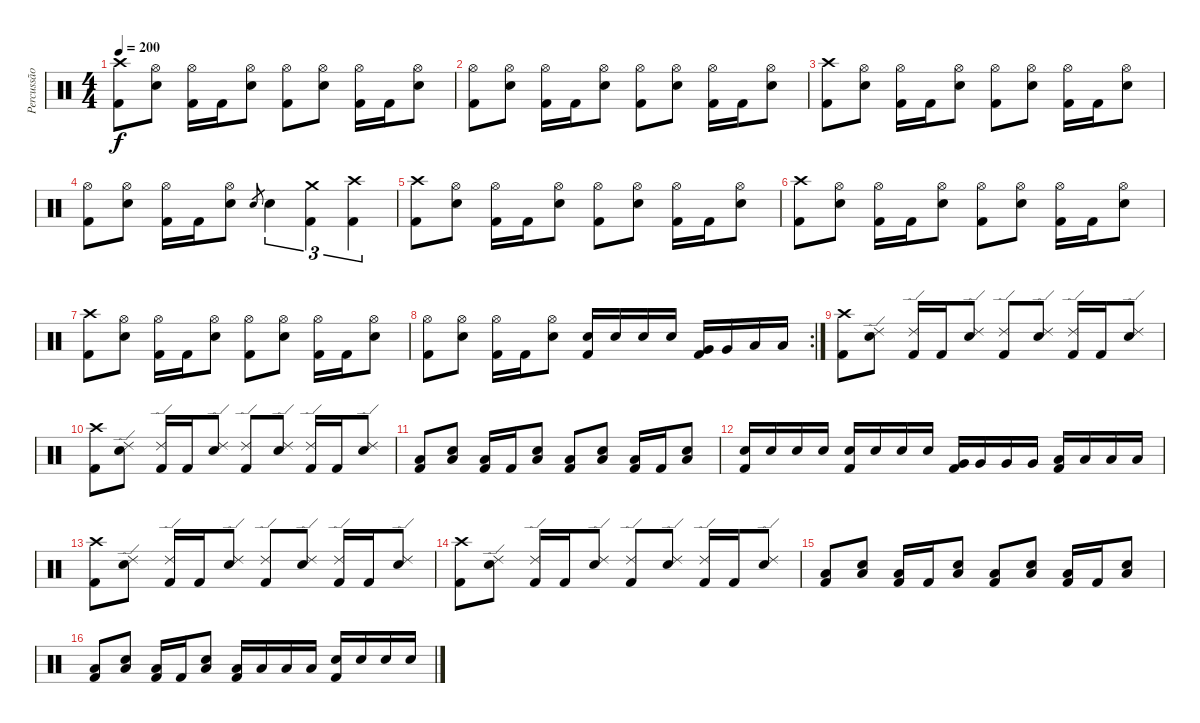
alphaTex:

\track ("Percussão" "Percussão") {instrument percussion}
\staff {score}
\articulation defaults
\ts (4 4)
\tempo 200
\clef neutral
\ks c
("Crash high (hit)" "Kick (hit) 2").8{dy f} ("Hi-Hat (open)" "Snare (hit) 2").8 ("Hi-Hat (open)" "Kick (hit) 2").16 "Kick (hit) 2".16 ("Hi-Hat (open)" "Snare (hit) 2").8 ("Hi-Hat (open)" "Kick (hit) 2").8 ("Hi-Hat (open)" "Snare (hit) 2").8 ("Hi-Hat (open)" "Kick (hit) 2").16 "Kick (hit) 2".16 ("Hi-Hat (open)" "Snare (hit) 2").8 |
("Hi-Hat (open)" "Kick (hit) 2").8 ("Hi-Hat (open)" "Snare (hit) 2").8 ("Hi-Hat (open)" "Kick (hit) 2").16 "Kick (hit) 2".16 ("Hi-Hat (open)" "Snare (hit) 2").8 ("Hi-Hat (open)" "Kick (hit) 2").8 ("Hi-Hat (open)" "Snare (hit) 2").8 ("Hi-Hat (open)" "Kick (hit) 2").16 "Kick (hit) 2".16 ("Hi-Hat (open)" "Snare (hit) 2").8 |
("Crash high (hit)" "Kick (hit) 2").8 ("Hi-Hat (open)" "Snare (hit) 2").8 ("Hi-Hat (open)" "Kick (hit) 2").16 "Kick (hit) 2".16 ("Hi-Hat (open)" "Snare (hit) 2").8 ("Hi-Hat (open)" "Kick (hit) 2").8 ("Hi-Hat (open)" "Snare (hit) 2").8 ("Hi-Hat (open)" "Kick (hit) 2").16 "Kick (hit) 2".16 ("Hi-Hat (open)" "Snare (hit) 2").8 |
("Hi-Hat (open)" "Kick (hit) 2").8 ("Hi-Hat (open)" "Snare (hit) 2").8 ("Hi-Hat (open)" "Kick (hit) 2").16 "Kick (hit) 2".16 ("Hi-Hat (open)" "Snare (hit) 2").8 "Snare (hit) 2".8{gr} "Snare (hit) 2".4{tu (3 2)} ("Crash medium (hit)" "Kick (hit) 2").4{tu (3 2)} ("Crash high (hit)" "Kick (hit) 2").4{tu (3 2)} |
("Crash high (hit)" "Kick (hit) 2").8 ("Hi-Hat (open)" "Snare (hit) 2").8 ("Hi-Hat (open)" "Kick (hit) 2").16 "Kick (hit) 2".16 ("Hi-Hat (open)" "Snare (hit) 2").8 ("Hi-Hat (open)" "Kick (hit) 2").8 ("Hi-Hat (open)" "Snare (hit) 2").8 ("Hi-Hat (open)" "Kick (hit) 2").16 "Kick (hit) 2".16 ("Hi-Hat (open)" "Snare (hit) 2").8 |
("Crash high (hit)" "Kick (hit) 2").8 ("Hi-Hat (open)" "Snare (hit) 2").8 ("Hi-Hat (open)" "Kick (hit) 2").16 "Kick (hit) 2".16 ("Hi-Hat (open)" "Snare (hit) 2").8 ("Hi-Hat (open)" "Kick (hit) 2").8 ("Hi-Hat (open)" "Snare (hit) 2").8 ("Hi-Hat (open)" "Kick (hit) 2").16 "Kick (hit) 2".16 ("Hi-Hat (open)" "Snare (hit) 2").8 |
("Crash high (hit)" "Kick (hit) 2").8 ("Hi-Hat (open)" "Snare (hit) 2").8 ("Hi-Hat (open)" "Kick (hit) 2").16 "Kick (hit) 2".16 ("Hi-Hat (open)" "Snare (hit) 2").8 ("Hi-Hat (open)" "Kick (hit) 2").8 ("Hi-Hat (open)" "Snare (hit) 2").8 ("Hi-Hat (open)" "Kick (hit) 2").16 "Kick (hit) 2".16 ("Hi-Hat (open)" "Snare (hit) 2").8 |
\rc 2
("Hi-Hat (open)" "Kick (hit) 2").8 ("Hi-Hat (open)" "Snare (hit) 2").8 ("Hi-Hat (open)" "Kick (hit) 2").16 "Kick (hit) 2".16 ("Hi-Hat (open)" "Snare (hit) 2").8 ("Snare (hit) 2" "Kick (hit) 2").16 "Snare (hit) 2".16 "Snare (hit) 2".16 "Snare (hit) 2".16 ("Very Low Tom (hit)" "Kick (hit) 2").16 "Very Low Tom (hit)".16 "Low Floor Tom (hit)".16 "Low Floor Tom (hit)".16 |
("Crash high (hit)" "Kick (hit) 2").8 ("Ride (edge) 2" "Snare (hit) 2").8 ("Ride (edge) 2" "Kick (hit) 2").16 "Kick (hit) 2".16 ("Ride (edge) 2" "Snare (hit) 2").8 ("Ride (edge) 2" "Kick (hit) 2").8 ("Ride (edge) 2" "Snare (hit) 2").8 ("Ride (edge) 2" "Kick (hit) 2").16 "Kick (hit) 2".16 ("Ride (edge) 2" "Snare (hit) 2").8 |
("Crash high (hit)" "Kick (hit) 2").8 ("Ride (edge) 2" "Snare (hit) 2").8 ("Ride (edge) 2" "Kick (hit) 2").16 "Kick (hit) 2".16 ("Ride (edge) 2" "Snare (hit) 2").8 ("Ride (edge) 2" "Kick (hit) 2").8 ("Ride (edge) 2" "Snare (hit) 2").8 ("Ride (edge) 2" "Kick (hit) 2").16 "Kick (hit) 2".16 ("Ride (edge) 2" "Snare (hit) 2").8 |
("Low Floor Tom (hit)" "Kick (hit) 2").8 ("Low Floor Tom (hit)" "Snare (hit) 2").8 ("Low Floor Tom (hit)" "Kick (hit) 2").16 "Kick (hit) 2".16 ("Low Floor Tom (hit)" "Snare (hit) 2").8 ("Low Floor Tom (hit)" "Kick (hit) 2").8 ("Low Floor Tom (hit)" "Snare (hit) 2").8 ("Low Floor Tom (hit)" "Kick (hit) 2").16 "Kick (hit) 2".16 ("Low Floor Tom (hit)" "Snare (hit) 2").8 |
("Snare (hit) 2" "Kick (hit) 2").16 "Snare (hit) 2".16 "Snare (hit) 2".16 "Snare (hit) 2".16 ("Snare (hit) 2" "Kick (hit) 2").16 "Snare (hit) 2".16 "Snare (hit) 2".16 "Snare (hit) 2".16 ("Very Low Tom (hit)" "Kick (hit) 2").16 "Very Low Tom (hit)".16 "Very Low Tom (hit)".16 "Very Low Tom (hit)".16 ("Low Floor Tom (hit)" "Kick (hit) 2").16 "Low Floor Tom (hit)".16 "Low Floor Tom (hit)".16 "Low Floor Tom (hit)".16 |
("Crash high (hit)" "Kick (hit) 2").8 ("Ride (edge) 2" "Snare (hit) 2").8 ("Ride (edge) 2" "Kick (hit) 2").16 "Kick (hit) 2".16 ("Ride (edge) 2" "Snare (hit) 2").8 ("Ride (edge) 2" "Kick (hit) 2").8 ("Ride (edge) 2" "Snare (hit) 2").8 ("Ride (edge) 2" "Kick (hit) 2").16 "Kick (hit) 2".16 ("Ride (edge) 2" "Snare (hit) 2").8 |
("Crash high (hit)" "Kick (hit) 2").8 ("Ride (edge) 2" "Snare (hit) 2").8 ("Ride (edge) 2" "Kick (hit) 2").16 "Kick (hit) 2".16 ("Ride (edge) 2" "Snare (hit) 2").8 ("Ride (edge) 2" "Kick (hit) 2").8 ("Ride (edge) 2" "Snare (hit) 2").8 ("Ride (edge) 2" "Kick (hit) 2").16 "Kick (hit) 2".16 ("Ride (edge) 2" "Snare (hit) 2").8 |
("Low Floor Tom (hit)" "Kick (hit) 2").8 ("Low Floor Tom (hit)" "Snare (hit) 2").8 ("Low Floor Tom (hit)" "Kick (hit) 2").16 "Kick (hit) 2".16 ("Low Floor Tom (hit)" "Snare (hit) 2").8 ("Low Floor Tom (hit)" "Kick (hit) 2").8 ("Low Floor Tom (hit)" "Snare (hit) 2").8 ("Low Floor Tom (hit)" "Kick (hit) 2").16 "Kick (hit) 2".16 ("Low Floor Tom (hit)" "Snare (hit) 2").8 |
("Low Floor Tom (hit)" "Kick (hit) 2").8 ("Low Floor Tom (hit)" "Snare (hit) 2").8 ("Low Floor Tom (hit)" "Kick (hit) 2").16 "Kick (hit) 2".16 ("Low Floor Tom (hit)" "Snare (hit) 2").8 ("Low Floor Tom (hit)" "Kick (hit) 2").16 "Low Floor Tom (hit)".16 "Low Floor Tom (hit)".16 "Low Floor Tom (hit)".16 ("Snare (hit) 2" "Kick (hit) 2").16 "Snare (hit) 2".16 "Snare (hit) 2".16 "Snare (hit) 2".16
